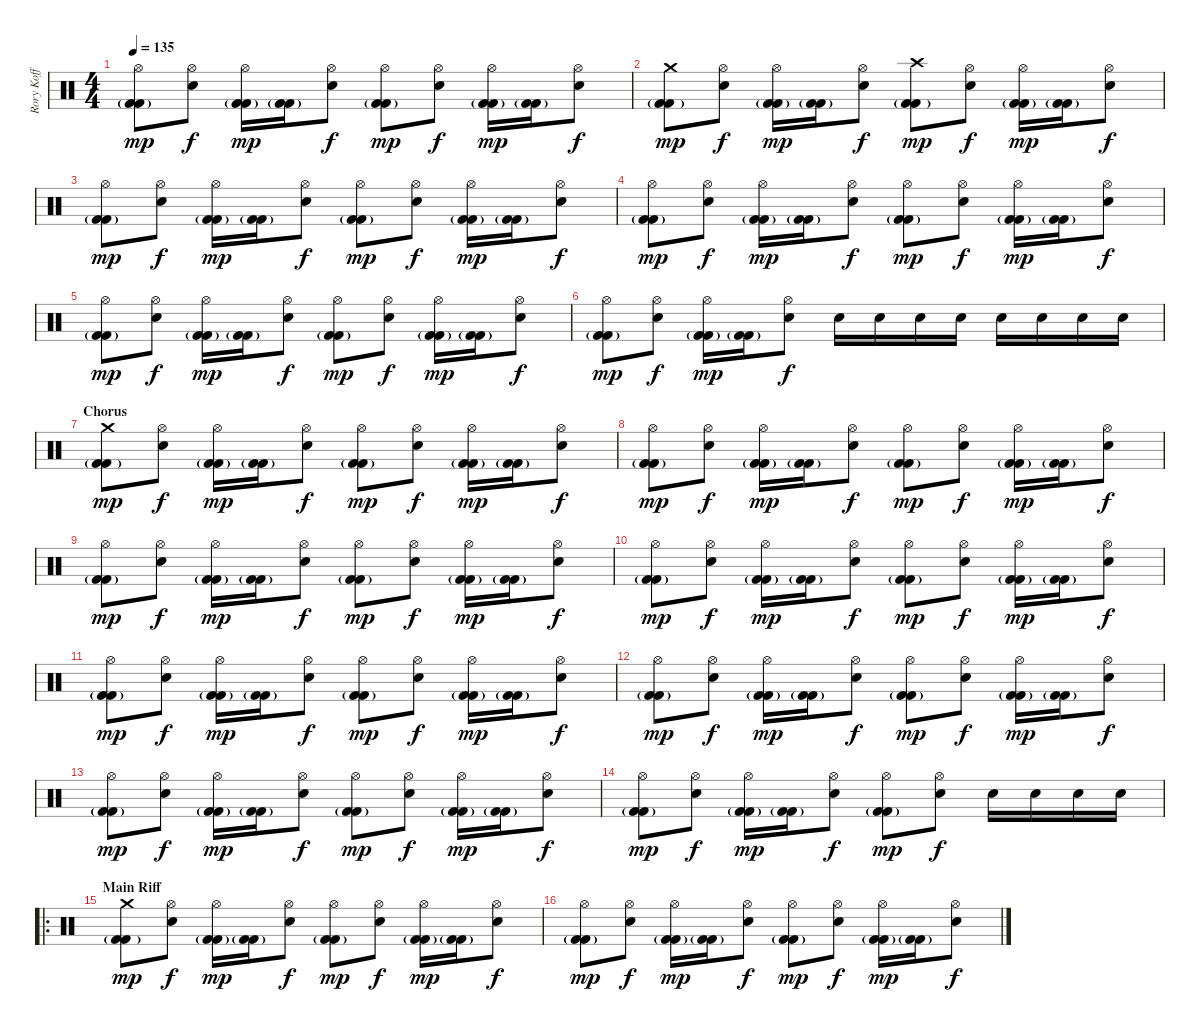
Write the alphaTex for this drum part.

\track ("Rory Koff" "Rory Koff") {instrument percussion}
\staff {score}
\articulation defaults
\ts (4 4)
\tempo 135
\clef neutral
\ks c
("Hi-Hat (open)" "Kick (hit) 2"{g} "Kick (hit) 2").8{dy mp} ("Hi-Hat (open)" "Snare (hit) 2").8{dy f} ("Hi-Hat (open)" "Kick (hit) 2"{g} "Kick (hit) 2").16{dy mp} ("Kick (hit) 2"{g} "Kick (hit) 2").16 ("Hi-Hat (open)" "Snare (hit) 2").8{dy f} ("Hi-Hat (open)" "Kick (hit) 2"{g} "Kick (hit) 2").8{dy mp} ("Hi-Hat (open)" "Snare (hit) 2").8{dy f} ("Hi-Hat (open)" "Kick (hit) 2"{g} "Kick (hit) 2").16{dy mp} ("Kick (hit) 2"{g} "Kick (hit) 2").16 ("Hi-Hat (open)" "Snare (hit) 2").8{dy f} |
("Crash medium (hit)" "Kick (hit) 2"{g} "Kick (hit) 2").8{dy mp} ("Hi-Hat (open)" "Snare (hit) 2").8{dy f} ("Hi-Hat (open)" "Kick (hit) 2"{g} "Kick (hit) 2").16{dy mp} ("Kick (hit) 2"{g} "Kick (hit) 2").16 ("Hi-Hat (open)" "Snare (hit) 2").8{dy f} ("Crash high (hit)" "Kick (hit) 2"{g} "Kick (hit) 2").8{dy mp} ("Hi-Hat (open)" "Snare (hit) 2").8{dy f} ("Hi-Hat (open)" "Kick (hit) 2"{g} "Kick (hit) 2").16{dy mp} ("Kick (hit) 2"{g} "Kick (hit) 2").16 ("Hi-Hat (open)" "Snare (hit) 2").8{dy f} |
("Hi-Hat (open)" "Kick (hit) 2"{g} "Kick (hit) 2").8{dy mp} ("Hi-Hat (open)" "Snare (hit) 2").8{dy f} ("Hi-Hat (open)" "Kick (hit) 2"{g} "Kick (hit) 2").16{dy mp} ("Kick (hit) 2"{g} "Kick (hit) 2").16 ("Hi-Hat (open)" "Snare (hit) 2").8{dy f} ("Hi-Hat (open)" "Kick (hit) 2"{g} "Kick (hit) 2").8{dy mp} ("Hi-Hat (open)" "Snare (hit) 2").8{dy f} ("Hi-Hat (open)" "Kick (hit) 2"{g} "Kick (hit) 2").16{dy mp} ("Kick (hit) 2"{g} "Kick (hit) 2").16 ("Hi-Hat (open)" "Snare (hit) 2").8{dy f} |
("Hi-Hat (open)" "Kick (hit) 2"{g} "Kick (hit) 2").8{dy mp} ("Hi-Hat (open)" "Snare (hit) 2").8{dy f} ("Hi-Hat (open)" "Kick (hit) 2"{g} "Kick (hit) 2").16{dy mp} ("Kick (hit) 2"{g} "Kick (hit) 2").16 ("Hi-Hat (open)" "Snare (hit) 2").8{dy f} ("Hi-Hat (open)" "Kick (hit) 2"{g} "Kick (hit) 2").8{dy mp} ("Hi-Hat (open)" "Snare (hit) 2").8{dy f} ("Hi-Hat (open)" "Kick (hit) 2"{g} "Kick (hit) 2").16{dy mp} ("Kick (hit) 2"{g} "Kick (hit) 2").16 ("Hi-Hat (open)" "Snare (hit) 2").8{dy f} |
("Hi-Hat (open)" "Kick (hit) 2"{g} "Kick (hit) 2").8{dy mp} ("Hi-Hat (open)" "Snare (hit) 2").8{dy f} ("Hi-Hat (open)" "Kick (hit) 2"{g} "Kick (hit) 2").16{dy mp} ("Kick (hit) 2"{g} "Kick (hit) 2").16 ("Hi-Hat (open)" "Snare (hit) 2").8{dy f} ("Hi-Hat (open)" "Kick (hit) 2"{g} "Kick (hit) 2").8{dy mp} ("Hi-Hat (open)" "Snare (hit) 2").8{dy f} ("Hi-Hat (open)" "Kick (hit) 2"{g} "Kick (hit) 2").16{dy mp} ("Kick (hit) 2"{g} "Kick (hit) 2").16 ("Hi-Hat (open)" "Snare (hit) 2").8{dy f} |
("Hi-Hat (open)" "Kick (hit) 2"{g} "Kick (hit) 2").8{dy mp} ("Hi-Hat (open)" "Snare (hit) 2").8{dy f} ("Hi-Hat (open)" "Kick (hit) 2"{g} "Kick (hit) 2").16{dy mp} ("Kick (hit) 2"{g} "Kick (hit) 2").16 ("Hi-Hat (open)" "Snare (hit) 2").8{dy f} "Snare (hit) 2".16 "Snare (hit) 2".16 "Snare (hit) 2".16 "Snare (hit) 2".16 "Snare (hit) 2".16 "Snare (hit) 2".16 "Snare (hit) 2".16 "Snare (hit) 2".16 |
\section ("" "Chorus")
("Crash medium (hit)" "Kick (hit) 2"{g} "Kick (hit) 2").8{dy mp} ("Hi-Hat (open)" "Snare (hit) 2").8{dy f} ("Hi-Hat (open)" "Kick (hit) 2"{g} "Kick (hit) 2").16{dy mp} ("Kick (hit) 2"{g} "Kick (hit) 2").16 ("Hi-Hat (open)" "Snare (hit) 2").8{dy f} ("Hi-Hat (open)" "Kick (hit) 2"{g} "Kick (hit) 2").8{dy mp} ("Hi-Hat (open)" "Snare (hit) 2").8{dy f} ("Hi-Hat (open)" "Kick (hit) 2"{g} "Kick (hit) 2").16{dy mp} ("Kick (hit) 2"{g} "Kick (hit) 2").16 ("Hi-Hat (open)" "Snare (hit) 2").8{dy f} |
("Hi-Hat (open)" "Kick (hit) 2"{g} "Kick (hit) 2").8{dy mp} ("Hi-Hat (open)" "Snare (hit) 2").8{dy f} ("Hi-Hat (open)" "Kick (hit) 2"{g} "Kick (hit) 2").16{dy mp} ("Kick (hit) 2"{g} "Kick (hit) 2").16 ("Hi-Hat (open)" "Snare (hit) 2").8{dy f} ("Hi-Hat (open)" "Kick (hit) 2"{g} "Kick (hit) 2").8{dy mp} ("Hi-Hat (open)" "Snare (hit) 2").8{dy f} ("Hi-Hat (open)" "Kick (hit) 2"{g} "Kick (hit) 2").16{dy mp} ("Kick (hit) 2"{g} "Kick (hit) 2").16 ("Hi-Hat (open)" "Snare (hit) 2").8{dy f} |
("Hi-Hat (open)" "Kick (hit) 2"{g} "Kick (hit) 2").8{dy mp} ("Hi-Hat (open)" "Snare (hit) 2").8{dy f} ("Hi-Hat (open)" "Kick (hit) 2"{g} "Kick (hit) 2").16{dy mp} ("Kick (hit) 2"{g} "Kick (hit) 2").16 ("Hi-Hat (open)" "Snare (hit) 2").8{dy f} ("Hi-Hat (open)" "Kick (hit) 2"{g} "Kick (hit) 2").8{dy mp} ("Hi-Hat (open)" "Snare (hit) 2").8{dy f} ("Hi-Hat (open)" "Kick (hit) 2"{g} "Kick (hit) 2").16{dy mp} ("Kick (hit) 2"{g} "Kick (hit) 2").16 ("Hi-Hat (open)" "Snare (hit) 2").8{dy f} |
("Hi-Hat (open)" "Kick (hit) 2"{g} "Kick (hit) 2").8{dy mp} ("Hi-Hat (open)" "Snare (hit) 2").8{dy f} ("Hi-Hat (open)" "Kick (hit) 2"{g} "Kick (hit) 2").16{dy mp} ("Kick (hit) 2"{g} "Kick (hit) 2").16 ("Hi-Hat (open)" "Snare (hit) 2").8{dy f} ("Hi-Hat (open)" "Kick (hit) 2"{g} "Kick (hit) 2").8{dy mp} ("Hi-Hat (open)" "Snare (hit) 2").8{dy f} ("Hi-Hat (open)" "Kick (hit) 2"{g} "Kick (hit) 2").16{dy mp} ("Kick (hit) 2"{g} "Kick (hit) 2").16 ("Hi-Hat (open)" "Snare (hit) 2").8{dy f} |
("Hi-Hat (open)" "Kick (hit) 2"{g} "Kick (hit) 2").8{dy mp} ("Hi-Hat (open)" "Snare (hit) 2").8{dy f} ("Hi-Hat (open)" "Kick (hit) 2"{g} "Kick (hit) 2").16{dy mp} ("Kick (hit) 2"{g} "Kick (hit) 2").16 ("Hi-Hat (open)" "Snare (hit) 2").8{dy f} ("Hi-Hat (open)" "Kick (hit) 2"{g} "Kick (hit) 2").8{dy mp} ("Hi-Hat (open)" "Snare (hit) 2").8{dy f} ("Hi-Hat (open)" "Kick (hit) 2"{g} "Kick (hit) 2").16{dy mp} ("Kick (hit) 2"{g} "Kick (hit) 2").16 ("Hi-Hat (open)" "Snare (hit) 2").8{dy f} |
("Hi-Hat (open)" "Kick (hit) 2"{g} "Kick (hit) 2").8{dy mp} ("Hi-Hat (open)" "Snare (hit) 2").8{dy f} ("Hi-Hat (open)" "Kick (hit) 2"{g} "Kick (hit) 2").16{dy mp} ("Kick (hit) 2"{g} "Kick (hit) 2").16 ("Hi-Hat (open)" "Snare (hit) 2").8{dy f} ("Hi-Hat (open)" "Kick (hit) 2"{g} "Kick (hit) 2").8{dy mp} ("Hi-Hat (open)" "Snare (hit) 2").8{dy f} ("Hi-Hat (open)" "Kick (hit) 2"{g} "Kick (hit) 2").16{dy mp} ("Kick (hit) 2"{g} "Kick (hit) 2").16 ("Hi-Hat (open)" "Snare (hit) 2").8{dy f} |
("Hi-Hat (open)" "Kick (hit) 2"{g} "Kick (hit) 2").8{dy mp} ("Hi-Hat (open)" "Snare (hit) 2").8{dy f} ("Hi-Hat (open)" "Kick (hit) 2"{g} "Kick (hit) 2").16{dy mp} ("Kick (hit) 2"{g} "Kick (hit) 2").16 ("Hi-Hat (open)" "Snare (hit) 2").8{dy f} ("Hi-Hat (open)" "Kick (hit) 2"{g} "Kick (hit) 2").8{dy mp} ("Hi-Hat (open)" "Snare (hit) 2").8{dy f} ("Hi-Hat (open)" "Kick (hit) 2"{g} "Kick (hit) 2").16{dy mp} ("Kick (hit) 2"{g} "Kick (hit) 2").16 ("Hi-Hat (open)" "Snare (hit) 2").8{dy f} |
("Hi-Hat (open)" "Kick (hit) 2"{g} "Kick (hit) 2").8{dy mp} ("Hi-Hat (open)" "Snare (hit) 2").8{dy f} ("Hi-Hat (open)" "Kick (hit) 2"{g} "Kick (hit) 2").16{dy mp} ("Kick (hit) 2"{g} "Kick (hit) 2").16 ("Hi-Hat (open)" "Snare (hit) 2").8{dy f} ("Hi-Hat (open)" "Kick (hit) 2"{g} "Kick (hit) 2").8{dy mp} ("Hi-Hat (open)" "Snare (hit) 2").8{dy f} "Snare (hit) 2".16 "Snare (hit) 2".16 "Snare (hit) 2".16 "Snare (hit) 2".16 |
\ro
\section ("" "Main Riff")
("Crash medium (hit)" "Kick (hit) 2"{g} "Kick (hit) 2").8{dy mp} ("Hi-Hat (open)" "Snare (hit) 2").8{dy f} ("Hi-Hat (open)" "Kick (hit) 2"{g} "Kick (hit) 2").16{dy mp} ("Kick (hit) 2"{g} "Kick (hit) 2").16 ("Hi-Hat (open)" "Snare (hit) 2").8{dy f} ("Hi-Hat (open)" "Kick (hit) 2"{g} "Kick (hit) 2").8{dy mp} ("Hi-Hat (open)" "Snare (hit) 2").8{dy f} ("Hi-Hat (open)" "Kick (hit) 2"{g} "Kick (hit) 2").16{dy mp} ("Kick (hit) 2"{g} "Kick (hit) 2").16 ("Hi-Hat (open)" "Snare (hit) 2").8{dy f} |
("Hi-Hat (open)" "Kick (hit) 2"{g} "Kick (hit) 2").8{dy mp} ("Hi-Hat (open)" "Snare (hit) 2").8{dy f} ("Hi-Hat (open)" "Kick (hit) 2"{g} "Kick (hit) 2").16{dy mp} ("Kick (hit) 2"{g} "Kick (hit) 2").16 ("Hi-Hat (open)" "Snare (hit) 2").8{dy f} ("Hi-Hat (open)" "Kick (hit) 2"{g} "Kick (hit) 2").8{dy mp} ("Hi-Hat (open)" "Snare (hit) 2").8{dy f} ("Hi-Hat (open)" "Kick (hit) 2"{g} "Kick (hit) 2").16{dy mp} ("Kick (hit) 2"{g} "Kick (hit) 2").16 ("Hi-Hat (open)" "Snare (hit) 2").8{dy f}
